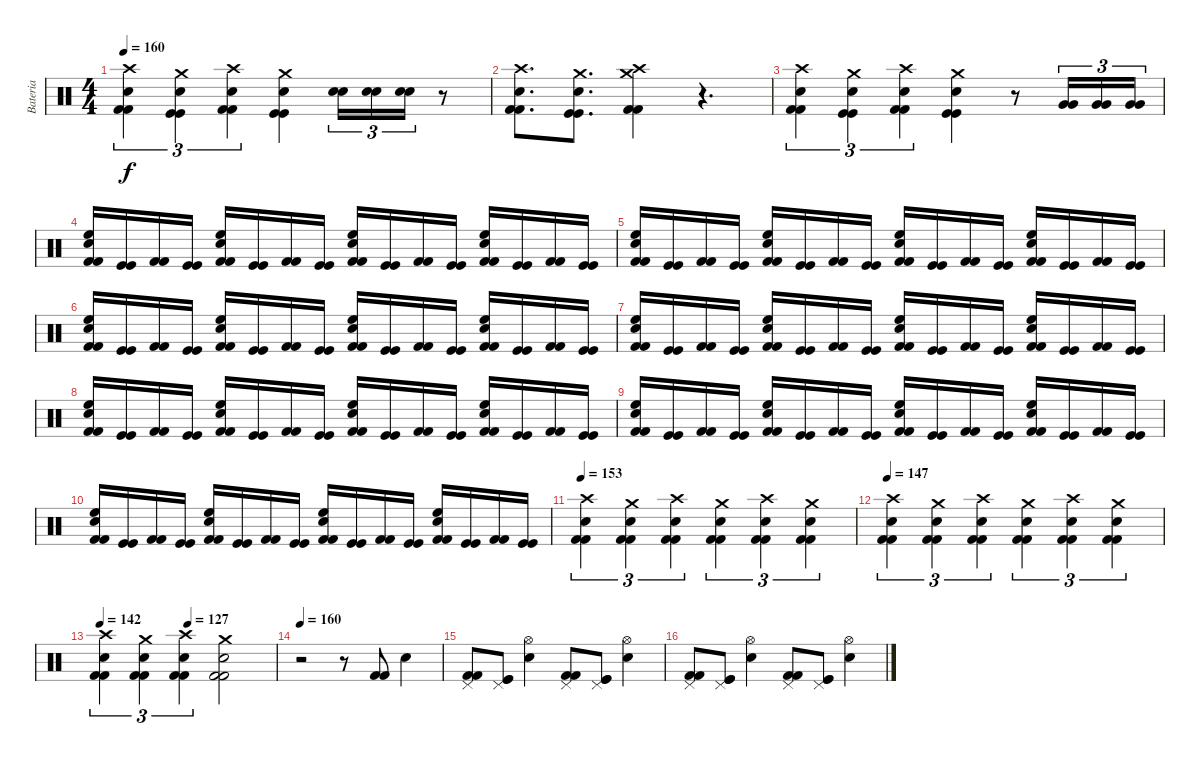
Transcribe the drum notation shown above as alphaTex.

\track ("Bateria" "Bateria") {instrument percussion}
\staff {score}
\articulation defaults
\ts (4 4)
\tempo 160
\clef neutral
\ks c
("Kick (hit) 2" "Kick (hit) 2" "Snare (hit) 2" "Crash high (hit)").4{tu (3 2) dy f} ("Kick (hit)" "Kick (hit)" "Snare (hit) 2" "Crash medium (hit)").4{tu (3 2)} ("Kick (hit) 2" "Kick (hit) 2" "Snare (hit) 2" "Crash high (hit)").4{tu (3 2)} ("Kick (hit)" "Kick (hit)" "Snare (hit) 2" "Crash medium (hit)").4 ("Snare (hit) 2" "Snare (hit) 2").16{tu (3 2)} ("Snare (hit) 2" "Snare (hit) 2").16{tu (3 2)} ("Snare (hit) 2" "Snare (hit) 2").16{tu (3 2)} r.8 |
("Kick (hit) 2" "Kick (hit) 2" "Snare (hit) 2" "Crash high (hit)").8{d} ("Kick (hit)" "Kick (hit)" "Snare (hit) 2" "Crash medium (hit)").8{d} ("Kick (hit) 2" "Kick (hit) 2" "Crash medium (hit)" "Crash high (hit)").4 r.4{d} |
("Kick (hit) 2" "Kick (hit) 2" "Snare (hit) 2" "Crash high (hit)").4{tu (3 2)} ("Kick (hit)" "Kick (hit)" "Snare (hit) 2" "Crash medium (hit)").4{tu (3 2)} ("Kick (hit) 2" "Kick (hit) 2" "Snare (hit) 2" "Crash high (hit)").4{tu (3 2)} ("Kick (hit)" "Kick (hit)" "Snare (hit) 2" "Crash medium (hit)").4 r.8 ("Very Low Tom (hit)" "Very Low Tom (hit)").16{tu (3 2)} ("Very Low Tom (hit)" "Very Low Tom (hit)").16{tu (3 2)} ("Very Low Tom (hit)" "Very Low Tom (hit)").16{tu (3 2)} |
("Kick (hit) 2" "Kick (hit) 2" "Snare (hit) 2" "High Floor Tom (hit)").16 ("Kick (hit)" "Kick (hit)").16 ("Kick (hit) 2" "Kick (hit) 2").16 ("Kick (hit)" "Kick (hit)").16 ("Kick (hit) 2" "Kick (hit) 2" "Snare (hit) 2" "High Floor Tom (hit)").16 ("Kick (hit)" "Kick (hit)").16 ("Kick (hit) 2" "Kick (hit) 2").16 ("Kick (hit)" "Kick (hit)").16 ("Kick (hit) 2" "Kick (hit) 2" "Snare (hit) 2" "High Floor Tom (hit)").16 ("Kick (hit)" "Kick (hit)").16 ("Kick (hit) 2" "Kick (hit) 2").16 ("Kick (hit)" "Kick (hit)").16 ("Kick (hit) 2" "Kick (hit) 2" "Snare (hit) 2" "High Floor Tom (hit)").16 ("Kick (hit)" "Kick (hit)").16 ("Kick (hit) 2" "Kick (hit) 2").16 ("Kick (hit)" "Kick (hit)").16 |
("Kick (hit) 2" "Kick (hit) 2" "Snare (hit) 2" "High Floor Tom (hit)").16 ("Kick (hit)" "Kick (hit)").16 ("Kick (hit) 2" "Kick (hit) 2").16 ("Kick (hit)" "Kick (hit)").16 ("Kick (hit) 2" "Kick (hit) 2" "Snare (hit) 2" "High Floor Tom (hit)").16 ("Kick (hit)" "Kick (hit)").16 ("Kick (hit) 2" "Kick (hit) 2").16 ("Kick (hit)" "Kick (hit)").16 ("Kick (hit) 2" "Kick (hit) 2" "Snare (hit) 2" "High Floor Tom (hit)").16 ("Kick (hit)" "Kick (hit)").16 ("Kick (hit) 2" "Kick (hit) 2").16 ("Kick (hit)" "Kick (hit)").16 ("Kick (hit) 2" "Kick (hit) 2" "Snare (hit) 2" "High Floor Tom (hit)").16 ("Kick (hit)" "Kick (hit)").16 ("Kick (hit) 2" "Kick (hit) 2").16 ("Kick (hit)" "Kick (hit)").16 |
("Kick (hit) 2" "Kick (hit) 2" "Snare (hit) 2" "High Floor Tom (hit)").16 ("Kick (hit)" "Kick (hit)").16 ("Kick (hit) 2" "Kick (hit) 2").16 ("Kick (hit)" "Kick (hit)").16 ("Kick (hit) 2" "Kick (hit) 2" "Snare (hit) 2" "High Floor Tom (hit)").16 ("Kick (hit)" "Kick (hit)").16 ("Kick (hit) 2" "Kick (hit) 2").16 ("Kick (hit)" "Kick (hit)").16 ("Kick (hit) 2" "Kick (hit) 2" "Snare (hit) 2" "High Floor Tom (hit)").16 ("Kick (hit)" "Kick (hit)").16 ("Kick (hit) 2" "Kick (hit) 2").16 ("Kick (hit)" "Kick (hit)").16 ("Kick (hit) 2" "Kick (hit) 2" "Snare (hit) 2" "High Floor Tom (hit)").16 ("Kick (hit)" "Kick (hit)").16 ("Kick (hit) 2" "Kick (hit) 2").16 ("Kick (hit)" "Kick (hit)").16 |
("Kick (hit) 2" "Kick (hit) 2" "Snare (hit) 2" "High Floor Tom (hit)").16 ("Kick (hit)" "Kick (hit)").16 ("Kick (hit) 2" "Kick (hit) 2").16 ("Kick (hit)" "Kick (hit)").16 ("Kick (hit) 2" "Kick (hit) 2" "Snare (hit) 2" "High Floor Tom (hit)").16 ("Kick (hit)" "Kick (hit)").16 ("Kick (hit) 2" "Kick (hit) 2").16 ("Kick (hit)" "Kick (hit)").16 ("Kick (hit) 2" "Kick (hit) 2" "Snare (hit) 2" "High Floor Tom (hit)").16 ("Kick (hit)" "Kick (hit)").16 ("Kick (hit) 2" "Kick (hit) 2").16 ("Kick (hit)" "Kick (hit)").16 ("Kick (hit) 2" "Kick (hit) 2" "Snare (hit) 2" "High Floor Tom (hit)").16 ("Kick (hit)" "Kick (hit)").16 ("Kick (hit) 2" "Kick (hit) 2").16 ("Kick (hit)" "Kick (hit)").16 |
("Kick (hit) 2" "Kick (hit) 2" "Snare (hit) 2" "High Floor Tom (hit)").16 ("Kick (hit)" "Kick (hit)").16 ("Kick (hit) 2" "Kick (hit) 2").16 ("Kick (hit)" "Kick (hit)").16 ("Kick (hit) 2" "Kick (hit) 2" "Snare (hit) 2" "High Floor Tom (hit)").16 ("Kick (hit)" "Kick (hit)").16 ("Kick (hit) 2" "Kick (hit) 2").16 ("Kick (hit)" "Kick (hit)").16 ("Kick (hit) 2" "Kick (hit) 2" "Snare (hit) 2" "High Floor Tom (hit)").16 ("Kick (hit)" "Kick (hit)").16 ("Kick (hit) 2" "Kick (hit) 2").16 ("Kick (hit)" "Kick (hit)").16 ("Kick (hit) 2" "Kick (hit) 2" "Snare (hit) 2" "High Floor Tom (hit)").16 ("Kick (hit)" "Kick (hit)").16 ("Kick (hit) 2" "Kick (hit) 2").16 ("Kick (hit)" "Kick (hit)").16 |
("Kick (hit) 2" "Kick (hit) 2" "Snare (hit) 2" "High Floor Tom (hit)").16 ("Kick (hit)" "Kick (hit)").16 ("Kick (hit) 2" "Kick (hit) 2").16 ("Kick (hit)" "Kick (hit)").16 ("Kick (hit) 2" "Kick (hit) 2" "Snare (hit) 2" "High Floor Tom (hit)").16 ("Kick (hit)" "Kick (hit)").16 ("Kick (hit) 2" "Kick (hit) 2").16 ("Kick (hit)" "Kick (hit)").16 ("Kick (hit) 2" "Kick (hit) 2" "Snare (hit) 2" "High Floor Tom (hit)").16 ("Kick (hit)" "Kick (hit)").16 ("Kick (hit) 2" "Kick (hit) 2").16 ("Kick (hit)" "Kick (hit)").16 ("Kick (hit) 2" "Kick (hit) 2" "Snare (hit) 2" "High Floor Tom (hit)").16 ("Kick (hit)" "Kick (hit)").16 ("Kick (hit) 2" "Kick (hit) 2").16 ("Kick (hit)" "Kick (hit)").16 |
("Kick (hit) 2" "Kick (hit) 2" "Snare (hit) 2" "High Floor Tom (hit)").16 ("Kick (hit)" "Kick (hit)").16 ("Kick (hit) 2" "Kick (hit) 2").16 ("Kick (hit)" "Kick (hit)").16 ("Kick (hit) 2" "Kick (hit) 2" "Snare (hit) 2" "High Floor Tom (hit)").16 ("Kick (hit)" "Kick (hit)").16 ("Kick (hit) 2" "Kick (hit) 2").16 ("Kick (hit)" "Kick (hit)").16 ("Kick (hit) 2" "Kick (hit) 2" "Snare (hit) 2" "High Floor Tom (hit)").16 ("Kick (hit)" "Kick (hit)").16 ("Kick (hit) 2" "Kick (hit) 2").16 ("Kick (hit)" "Kick (hit)").16 ("Kick (hit) 2" "Kick (hit) 2" "Snare (hit) 2" "High Floor Tom (hit)").16 ("Kick (hit)" "Kick (hit)").16 ("Kick (hit) 2" "Kick (hit) 2").16 ("Kick (hit)" "Kick (hit)").16 |
\tempo 153
("Kick (hit) 2" "Kick (hit) 2" "Snare (hit) 2" "Crash high (hit)").4{tu (3 2)} ("Kick (hit) 2" "Kick (hit) 2" "Snare (hit) 2" "Crash medium (hit)").4{tu (3 2)} ("Kick (hit) 2" "Kick (hit) 2" "Snare (hit) 2" "Crash high (hit)").4{tu (3 2)} ("Kick (hit) 2" "Kick (hit) 2" "Snare (hit) 2" "Crash medium (hit)").4{tu (3 2)} ("Kick (hit) 2" "Kick (hit) 2" "Snare (hit) 2" "Crash high (hit)").4{tu (3 2)} ("Kick (hit) 2" "Kick (hit) 2" "Snare (hit) 2" "Crash medium (hit)").4{tu (3 2)} |
\tempo 147
("Kick (hit) 2" "Kick (hit) 2" "Snare (hit) 2" "Crash high (hit)").4{tu (3 2)} ("Kick (hit) 2" "Kick (hit) 2" "Snare (hit) 2" "Crash medium (hit)").4{tu (3 2)} ("Kick (hit) 2" "Kick (hit) 2" "Snare (hit) 2" "Crash high (hit)").4{tu (3 2)} ("Kick (hit) 2" "Kick (hit) 2" "Snare (hit) 2" "Crash medium (hit)").4{tu (3 2)} ("Kick (hit) 2" "Kick (hit) 2" "Snare (hit) 2" "Crash high (hit)").4{tu (3 2)} ("Kick (hit) 2" "Kick (hit) 2" "Snare (hit) 2" "Crash medium (hit)").4{tu (3 2)} |
\tempo 142
\tempo (127 0.5)
("Kick (hit) 2" "Kick (hit) 2" "Snare (hit) 2" "Crash high (hit)").4{tu (3 2)} ("Kick (hit) 2" "Kick (hit) 2" "Snare (hit) 2" "Crash medium (hit)").4{tu (3 2)} ("Kick (hit) 2" "Kick (hit) 2" "Snare (hit) 2" "Crash high (hit)").4{tu (3 2)} ("Kick (hit) 2" "Kick (hit) 2" "Snare (hit) 2" "Crash medium (hit)").2 |
\tempo 160
r.2 r.8 ("Kick (hit) 2" "Kick (hit) 2").8 "Snare (hit) 2".4 |
("Kick (hit) 2" "Kick (hit) 2" "Pedal Hi-Hat (hit)").8 ("Kick (hit)" "Kick (hit)" "Pedal Hi-Hat (hit)").8 ("Snare (hit) 2" "Hi-Hat (open)").4 ("Kick (hit) 2" "Kick (hit) 2" "Pedal Hi-Hat (hit)").8 ("Kick (hit)" "Kick (hit)" "Pedal Hi-Hat (hit)").8 ("Snare (hit) 2" "Hi-Hat (open)").4 |
("Kick (hit) 2" "Kick (hit) 2" "Pedal Hi-Hat (hit)").8 ("Kick (hit)" "Kick (hit)" "Pedal Hi-Hat (hit)").8 ("Snare (hit) 2" "Hi-Hat (open)").4 ("Kick (hit) 2" "Kick (hit) 2" "Pedal Hi-Hat (hit)").8 ("Kick (hit)" "Kick (hit)" "Pedal Hi-Hat (hit)").8 ("Snare (hit) 2" "Hi-Hat (open)").4
